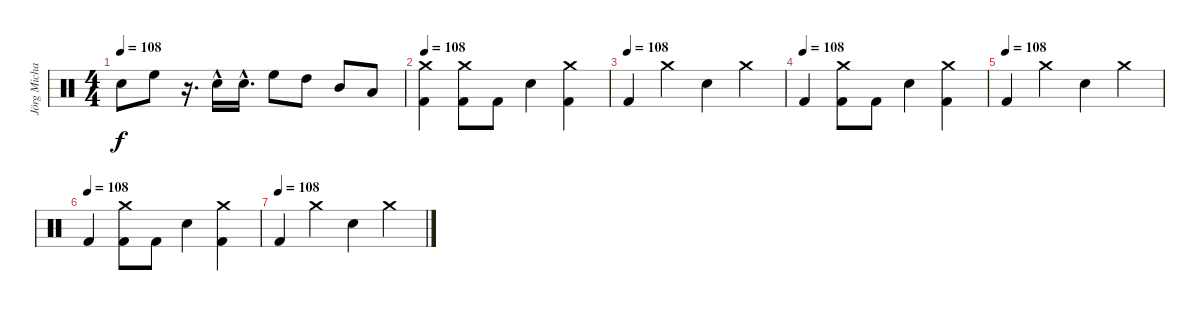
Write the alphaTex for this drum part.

\track ("Jörg Michael (Drums)" "Jörg Micha") {instrument percussion}
\staff {score}
\articulation defaults
\ts (4 4)
\tempo 108
\clef neutral
\ks c "Snare (hit) 2".8{dy f} "High Floor Tom (hit)".8
r.16{d} "Snare (hit) 2"{hac}.16 "Snare (hit) 2"{hac}.16{d} "High Floor Tom (hit)".8 "High Tom (hit)".8 "Mid Tom (hit)".8 "Low Tom (hit)".8 |
\tempo 108
("Kick (hit) 2" "Crash medium (hit)").4 ("Kick (hit) 2" "Crash medium (hit)").8 "Kick (hit) 2".8 "Snare (hit) 2".4 ("Kick (hit) 2" "Crash medium (hit)").4 |
\tempo (108)
"Kick (hit) 2".4 "Crash medium (hit)".4 "Snare (hit) 2".4 "Crash medium (hit)".4 |
\tempo (108)
"Kick (hit) 2".4 ("Kick (hit) 2" "Crash medium (hit)").8 "Kick (hit) 2".8 "Snare (hit) 2".4 ("Kick (hit) 2" "Crash medium (hit)").4 |
\tempo (108)
"Kick (hit) 2".4 "Crash medium (hit)".4 "Snare (hit) 2".4 "Crash medium (hit)".4 |
\tempo (108)
"Kick (hit) 2".4 ("Kick (hit) 2" "Crash medium (hit)").8 "Kick (hit) 2".8 "Snare (hit) 2".4 ("Kick (hit) 2" "Crash medium (hit)").4 |
\tempo (108)
"Kick (hit) 2".4 "Crash medium (hit)".4 "Snare (hit) 2".4 "Crash medium (hit)".4
